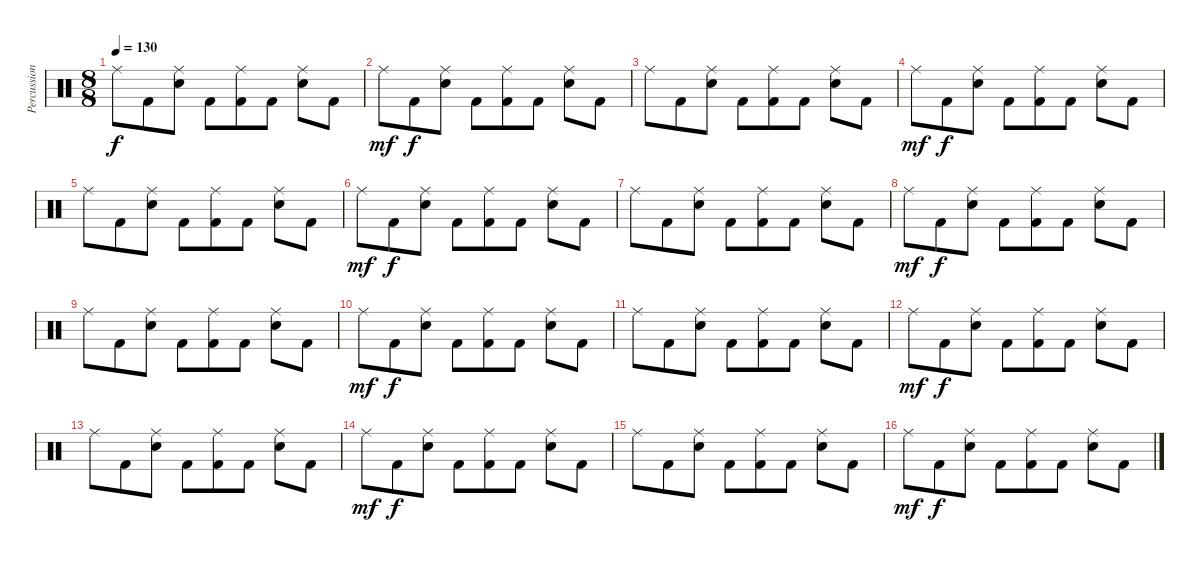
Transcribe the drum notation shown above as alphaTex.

\track ("Percussion" "Percussion") {instrument percussion}
\staff {score}
\articulation defaults
\ts (8 8)
\tempo 130
\clef neutral
\ks c "Ride (middle)".8{dy f} "Kick (hit) 2".8
("Ride (middle)" "Snare (hit) 2").8 "Kick (hit) 2".8 ("Ride (middle)" "Kick (hit) 2").8 "Kick (hit) 2".8 ("Ride (middle)" "Snare (hit) 2").8 "Kick (hit) 2".8 |
"Ride (middle)".8{dy mf} "Kick (hit) 2".8{dy f} ("Ride (middle)" "Snare (hit) 2").8 "Kick (hit) 2".8 ("Ride (middle)" "Kick (hit) 2").8 "Kick (hit) 2".8 ("Ride (middle)" "Snare (hit) 2").8 "Kick (hit) 2".8 |
"Ride (middle)".8 "Kick (hit) 2".8 ("Ride (middle)" "Snare (hit) 2").8 "Kick (hit) 2".8 ("Ride (middle)" "Kick (hit) 2").8 "Kick (hit) 2".8 ("Ride (middle)" "Snare (hit) 2").8 "Kick (hit) 2".8 |
"Ride (middle)".8{dy mf} "Kick (hit) 2".8{dy f} ("Ride (middle)" "Snare (hit) 2").8 "Kick (hit) 2".8 ("Ride (middle)" "Kick (hit) 2").8 "Kick (hit) 2".8 ("Ride (middle)" "Snare (hit) 2").8 "Kick (hit) 2".8 |
"Ride (middle)".8 "Kick (hit) 2".8 ("Ride (middle)" "Snare (hit) 2").8 "Kick (hit) 2".8 ("Ride (middle)" "Kick (hit) 2").8 "Kick (hit) 2".8 ("Ride (middle)" "Snare (hit) 2").8 "Kick (hit) 2".8 |
"Ride (middle)".8{dy mf} "Kick (hit) 2".8{dy f} ("Ride (middle)" "Snare (hit) 2").8 "Kick (hit) 2".8 ("Ride (middle)" "Kick (hit) 2").8 "Kick (hit) 2".8 ("Ride (middle)" "Snare (hit) 2").8 "Kick (hit) 2".8 |
"Ride (middle)".8 "Kick (hit) 2".8 ("Ride (middle)" "Snare (hit) 2").8 "Kick (hit) 2".8 ("Ride (middle)" "Kick (hit) 2").8 "Kick (hit) 2".8 ("Ride (middle)" "Snare (hit) 2").8 "Kick (hit) 2".8 |
"Ride (middle)".8{dy mf} "Kick (hit) 2".8{dy f} ("Ride (middle)" "Snare (hit) 2").8 "Kick (hit) 2".8 ("Ride (middle)" "Kick (hit) 2").8 "Kick (hit) 2".8 ("Ride (middle)" "Snare (hit) 2").8 "Kick (hit) 2".8 |
"Ride (middle)".8 "Kick (hit) 2".8 ("Ride (middle)" "Snare (hit) 2").8 "Kick (hit) 2".8 ("Ride (middle)" "Kick (hit) 2").8 "Kick (hit) 2".8 ("Ride (middle)" "Snare (hit) 2").8 "Kick (hit) 2".8 |
"Ride (middle)".8{dy mf} "Kick (hit) 2".8{dy f} ("Ride (middle)" "Snare (hit) 2").8 "Kick (hit) 2".8 ("Ride (middle)" "Kick (hit) 2").8 "Kick (hit) 2".8 ("Ride (middle)" "Snare (hit) 2").8 "Kick (hit) 2".8 |
"Ride (middle)".8 "Kick (hit) 2".8 ("Ride (middle)" "Snare (hit) 2").8 "Kick (hit) 2".8 ("Ride (middle)" "Kick (hit) 2").8 "Kick (hit) 2".8 ("Ride (middle)" "Snare (hit) 2").8 "Kick (hit) 2".8 |
"Ride (middle)".8{dy mf} "Kick (hit) 2".8{dy f} ("Ride (middle)" "Snare (hit) 2").8 "Kick (hit) 2".8 ("Ride (middle)" "Kick (hit) 2").8 "Kick (hit) 2".8 ("Ride (middle)" "Snare (hit) 2").8 "Kick (hit) 2".8 |
"Ride (middle)".8 "Kick (hit) 2".8 ("Ride (middle)" "Snare (hit) 2").8 "Kick (hit) 2".8 ("Ride (middle)" "Kick (hit) 2").8 "Kick (hit) 2".8 ("Ride (middle)" "Snare (hit) 2").8 "Kick (hit) 2".8 |
"Ride (middle)".8{dy mf} "Kick (hit) 2".8{dy f} ("Ride (middle)" "Snare (hit) 2").8 "Kick (hit) 2".8 ("Ride (middle)" "Kick (hit) 2").8 "Kick (hit) 2".8 ("Ride (middle)" "Snare (hit) 2").8 "Kick (hit) 2".8 |
"Ride (middle)".8 "Kick (hit) 2".8 ("Ride (middle)" "Snare (hit) 2").8 "Kick (hit) 2".8 ("Ride (middle)" "Kick (hit) 2").8 "Kick (hit) 2".8 ("Ride (middle)" "Snare (hit) 2").8 "Kick (hit) 2".8 |
"Ride (middle)".8{dy mf} "Kick (hit) 2".8{dy f} ("Ride (middle)" "Snare (hit) 2").8 "Kick (hit) 2".8 ("Ride (middle)" "Kick (hit) 2").8 "Kick (hit) 2".8 ("Ride (middle)" "Snare (hit) 2").8 "Kick (hit) 2".8
